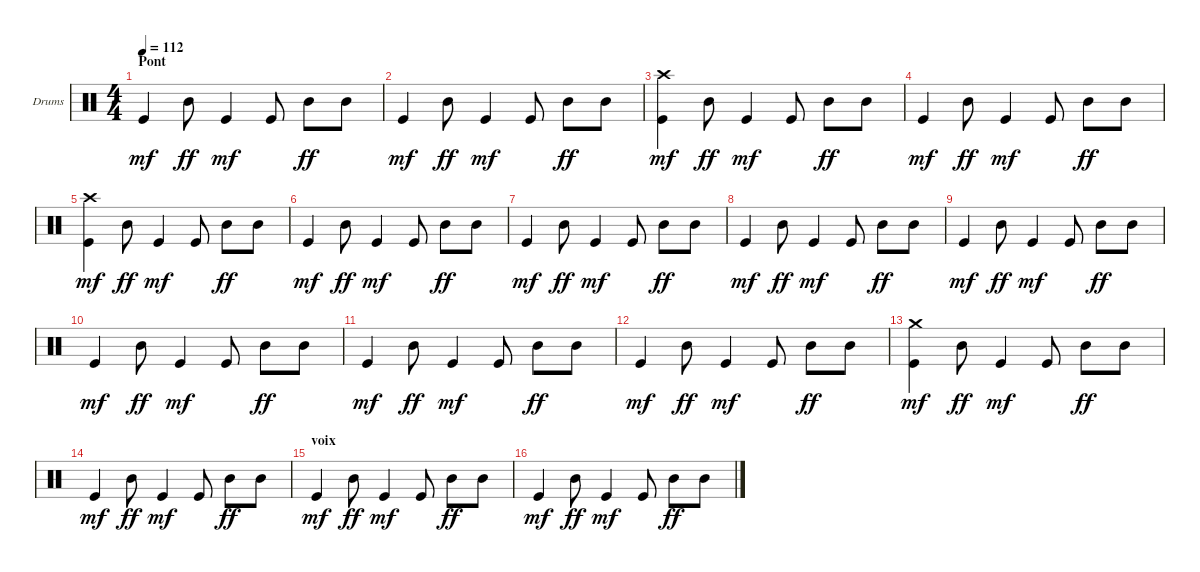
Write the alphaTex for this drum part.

\defaultSystemsLayout 4
\bracketExtendMode groupsimilarinstruments
\firstSystemTrackNameOrientation horizontal
\otherSystemsTrackNameOrientation horizontal
\track ("Drumkit" "Drums") {instrument percussion}
\staff {score}
\articulation defaults
\ts (4 4)
\section ("" "Pont")
\tempo 112
\clef neutral
\ks c "Kick (hit)".4{dy mf} "Mid Tom (hit)".8{dy ff} "Kick (hit)".4{dy mf} "Kick (hit)".8 "Mid Tom (hit)".8{dy ff} "Mid Tom (hit)".8
|
"Kick (hit)".4{dy mf} "Mid Tom (hit)".8{dy ff} "Kick (hit)".4{dy mf} "Kick (hit)".8 "Mid Tom (hit)".8{dy ff} "Mid Tom (hit)".8 |
\scale
1.07945 ("Kick (hit)" "Crash high (hit)").4{dy mf} "Mid Tom (hit)".8{dy ff} "Kick (hit)".4{dy mf} "Kick (hit)".8 "Mid Tom (hit)".8{dy ff} "Mid Tom (hit)".8 |
\scale
0.973518 "Kick (hit)".4{dy mf} "Mid Tom (hit)".8{dy ff} "Kick (hit)".4{dy mf} "Kick (hit)".8 "Mid Tom (hit)".8{dy ff} "Mid Tom (hit)".8 |
\scale
0.973518 ("Kick (hit)" "Crash high (hit)").4{dy mf} "Mid Tom (hit)".8{dy ff} "Kick (hit)".4{dy mf} "Kick (hit)".8 "Mid Tom (hit)".8{dy ff} "Mid Tom (hit)".8 |
\scale
0.973518 "Kick (hit)".4{dy mf} "Mid Tom (hit)".8{dy ff} "Kick (hit)".4{dy mf} "Kick (hit)".8 "Mid Tom (hit)".8{dy ff} "Mid Tom (hit)".8 |
\scale
1.07945 "Kick (hit)".4{dy mf} "Mid Tom (hit)".8{dy ff} "Kick (hit)".4{dy mf} "Kick (hit)".8 "Mid Tom (hit)".8{dy ff} "Mid Tom (hit)".8 |
\scale
0.973518 "Kick (hit)".4{dy mf} "Mid Tom (hit)".8{dy ff} "Kick (hit)".4{dy mf} "Kick (hit)".8 "Mid Tom (hit)".8{dy ff} "Mid Tom (hit)".8 |
\scale
0.973518 "Kick (hit)".4{dy mf} "Mid Tom (hit)".8{dy ff} "Kick (hit)".4{dy mf} "Kick (hit)".8 "Mid Tom (hit)".8{dy ff} "Mid Tom (hit)".8 |
\scale
0.973518 "Kick (hit)".4{dy mf} "Mid Tom (hit)".8{dy ff} "Kick (hit)".4{dy mf} "Kick (hit)".8 "Mid Tom (hit)".8{dy ff} "Mid Tom (hit)".8 |
\scale
1.07945 "Kick (hit)".4{dy mf} "Mid Tom (hit)".8{dy ff} "Kick (hit)".4{dy mf} "Kick (hit)".8 "Mid Tom (hit)".8{dy ff} "Mid Tom (hit)".8 |
\scale
0.973518 "Kick (hit)".4{dy mf} "Mid Tom (hit)".8{dy ff} "Kick (hit)".4{dy mf} "Kick (hit)".8 "Mid Tom (hit)".8{dy ff} "Mid Tom (hit)".8 |
\scale
0.973518 ("Kick (hit)" "Crash medium (hit)").4{dy mf} "Mid Tom (hit)".8{dy ff} "Kick (hit)".4{dy mf} "Kick (hit)".8 "Mid Tom (hit)".8{dy ff} "Mid Tom (hit)".8 |
\scale
0.973518 "Kick (hit)".4{dy mf} "Mid Tom (hit)".8{dy ff} "Kick (hit)".4{dy mf} "Kick (hit)".8 "Mid Tom (hit)".8{dy ff} "Mid Tom (hit)".8 |
\section ("" "voix")
\scale
1.07945 "Kick (hit)".4{dy mf} "Mid Tom (hit)".8{dy ff} "Kick (hit)".4{dy mf} "Kick (hit)".8 "Mid Tom (hit)".8{dy ff} "Mid Tom (hit)".8 |
\scale
0.973518 "Kick (hit)".4{dy mf} "Mid Tom (hit)".8{dy ff} "Kick (hit)".4{dy mf} "Kick (hit)".8 "Mid Tom (hit)".8{dy ff} "Mid Tom (hit)".8
